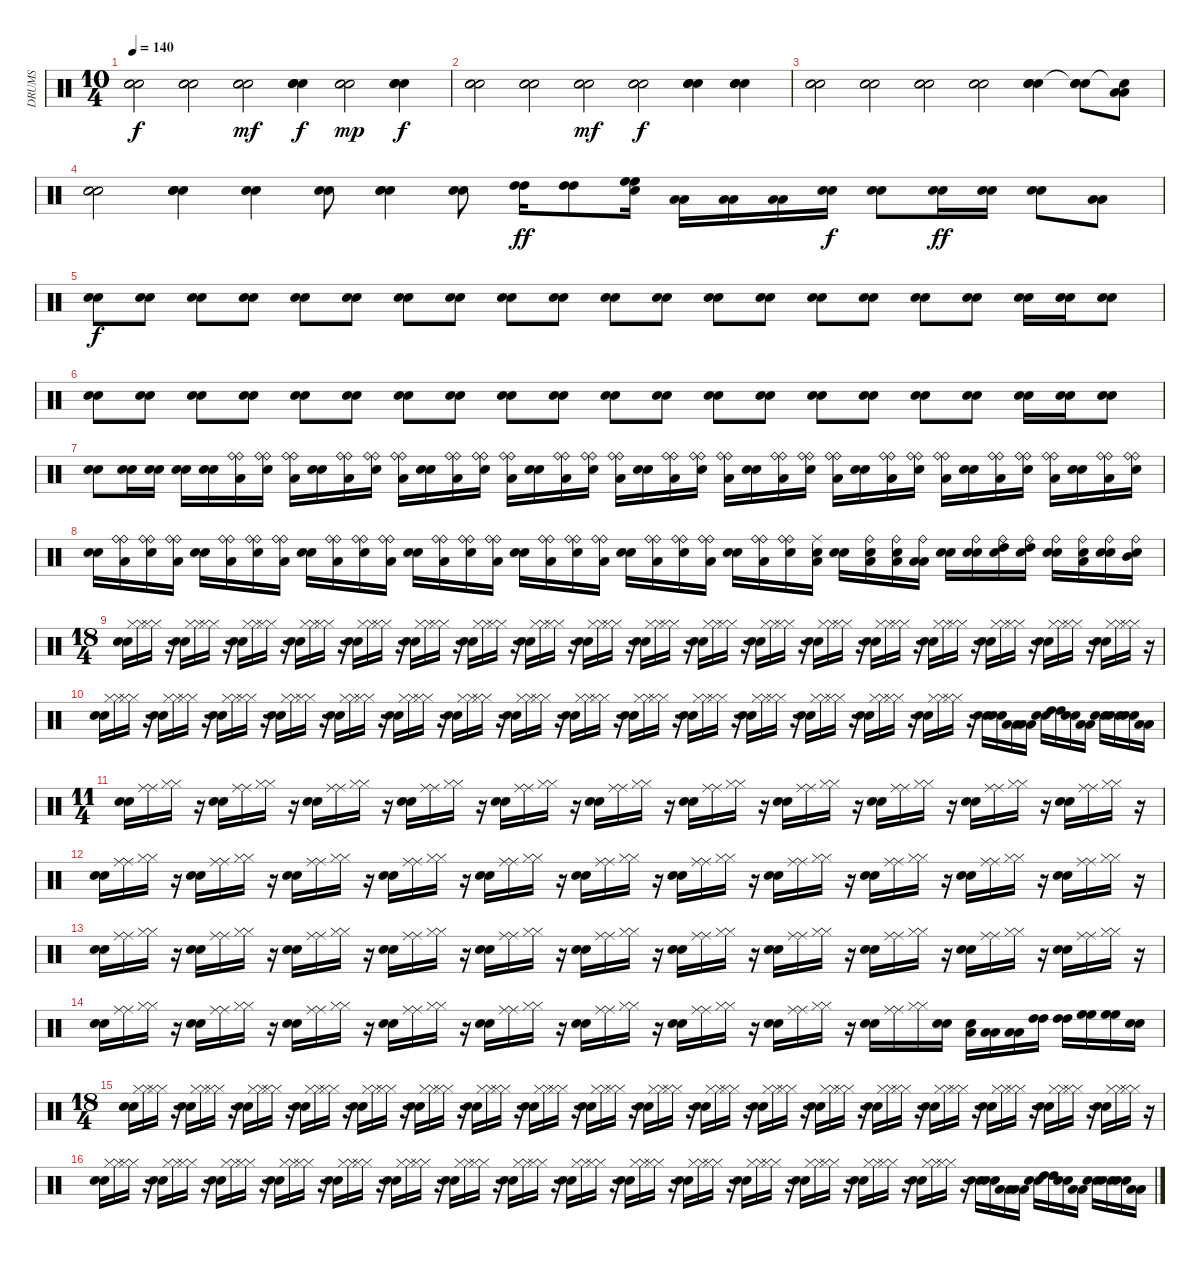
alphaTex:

\track ("DRUMS" "DRUMS") {instrument percussion}
\staff {score}
\articulation defaults
\ts (10 4)
\tempo 140
\clef neutral
\ks c
("Snare (hit) 2" "Snare (hit) 2" "Hand Clap (hit)").2{dy f} ("Snare (hit) 2" "Snare (hit) 2" "Hand Clap (hit)").2 ("Snare (hit) 2" "Snare (hit) 2" "Hand Clap (hit)").2{dy mf} ("Snare (hit) 2" "Snare (hit) 2" "Hand Clap (hit)").4{dy f} ("Electric Snare (hit)" "Electric Snare (hit)" "Hand Clap (hit)").2{dy mp} ("Snare (hit) 2" "Snare (hit) 2" "Hand Clap (hit)").4{dy f} |
("Snare (hit) 2" "Snare (hit) 2" "Hand Clap (hit)").2 ("Snare (hit) 2" "Snare (hit) 2" "Hand Clap (hit)").2 ("Snare (hit) 2" "Snare (hit) 2" "Hand Clap (hit)").2{dy mf} ("Snare (hit) 2" "Snare (hit) 2" "Hand Clap (hit)").2{dy f} ("Snare (hit) 2" "Snare (hit) 2" "Hand Clap (hit)").4 ("Snare (hit) 2" "Snare (hit) 2" "Hand Clap (hit)").4 |
("Snare (hit) 2" "Snare (hit) 2" "Hand Clap (hit)").2 ("Snare (hit) 2" "Snare (hit) 2" "Hand Clap (hit)").2 ("Snare (hit) 2" "Snare (hit) 2" "Hand Clap (hit)").2 ("Snare (hit) 2" "Snare (hit) 2" "Hand Clap (hit)").2 ("Snare (hit) 2" "Snare (hit) 2" "Hand Clap (hit)").4 ("Electric Snare (hit)" "Electric Snare (hit)" "Snare (hit)"{t}).8 ("Low Floor Tom (hit)" "Low Floor Tom (hit)" "Snare (hit)"{t}).8 |
("Snare (hit) 2" "Snare (hit) 2" "Hand Clap (hit)").2 ("Snare (hit) 2" "Snare (hit) 2" "Hand Clap (hit)").4 ("Snare (hit) 2" "Snare (hit) 2").4 ("Electric Snare (hit)" "Electric Snare (hit)").8 ("Snare (hit) 2" "Snare (hit) 2" "Hand Clap (hit)").4 ("Electric Snare (hit)" "Electric Snare (hit)").8 ("High Tom (hit)" "High Tom (hit)").16{dy ff volume 16} ("High Tom (hit)" "High Tom (hit)").8 ("High Floor Tom (hit)" "High Floor Tom (hit)" "Hand Clap (hit)").16 ("Low Tom (hit)" "Low Tom (hit)").16 ("Low Tom (hit)" "Low Tom (hit)").16 ("Low Tom (hit)" "Low Tom (hit)").16{volume 16} ("Electric Snare (hit)" "Electric Snare (hit)").16{dy f} ("Electric Snare (hit)" "Electric Snare (hit)").8 ("Electric Snare (hit)" "Electric Snare (hit)").16{dy ff volume 16} ("Electric Snare (hit)" "Electric Snare (hit)").16 ("Electric Snare (hit)" "Electric Snare (hit)").8 ("Low Tom (hit)" "Low Tom (hit)").8{volume 15} |
("Electric Snare (hit)" "Electric Snare (hit)").8{dy f} ("Snare (hit) 2" "Snare (hit) 2").8 ("Electric Snare (hit)" "Electric Snare (hit)").8 ("Snare (hit) 2" "Snare (hit) 2").8 ("Electric Snare (hit)" "Electric Snare (hit)").8 ("Snare (hit) 2" "Snare (hit) 2").8 ("Electric Snare (hit)" "Electric Snare (hit)").8 ("Snare (hit) 2" "Snare (hit) 2").8 ("Electric Snare (hit)" "Electric Snare (hit)").8 ("Snare (hit) 2" "Snare (hit) 2").8 ("Electric Snare (hit)" "Electric Snare (hit)").8 ("Snare (hit) 2" "Snare (hit) 2").8 ("Electric Snare (hit)" "Electric Snare (hit)").8 ("Snare (hit) 2" "Snare (hit) 2").8 ("Electric Snare (hit)" "Electric Snare (hit)").8 ("Snare (hit) 2" "Snare (hit) 2").8 ("Electric Snare (hit)" "Electric Snare (hit)").8 ("Snare (hit) 2" "Snare (hit) 2").8 ("Electric Snare (hit)" "Electric Snare (hit)").16 ("Electric Snare (hit)" "Electric Snare (hit)").16 ("Snare (hit) 2" "Snare (hit) 2").8 |
("Electric Snare (hit)" "Electric Snare (hit)").8 ("Snare (hit) 2" "Snare (hit) 2").8 ("Electric Snare (hit)" "Electric Snare (hit)").8 ("Snare (hit) 2" "Snare (hit) 2").8 ("Electric Snare (hit)" "Electric Snare (hit)").8 ("Snare (hit) 2" "Snare (hit) 2").8 ("Electric Snare (hit)" "Electric Snare (hit)").8 ("Snare (hit) 2" "Snare (hit) 2").8 ("Electric Snare (hit)" "Electric Snare (hit)").8 ("Snare (hit) 2" "Snare (hit) 2").8 ("Electric Snare (hit)" "Electric Snare (hit)").8 ("Snare (hit) 2" "Snare (hit) 2").8 ("Electric Snare (hit)" "Electric Snare (hit)").8 ("Snare (hit) 2" "Snare (hit) 2").8 ("Electric Snare (hit)" "Electric Snare (hit)").8 ("Snare (hit) 2" "Snare (hit) 2").8 ("Electric Snare (hit)" "Electric Snare (hit)").8 ("Snare (hit) 2" "Snare (hit) 2").8 ("Electric Snare (hit)" "Electric Snare (hit)").16 ("Electric Snare (hit)" "Electric Snare (hit)").16 ("Snare (hit) 2" "Snare (hit) 2").8 |
("Electric Snare (hit)" "Electric Snare (hit)").8 ("Electric Snare (hit)" "Electric Snare (hit)").16 ("Electric Snare (hit)" "Electric Snare (hit)").16 ("Electric Snare (hit)" "Electric Snare (hit)").16 ("Electric Snare (hit)" "Electric Snare (hit)").16{volume 16} ("Low Floor Tom (hit)" "Ride (bell)" "Ride (bell)").16 ("Electric Snare (hit)" "Ride (bell)" "Ride (bell)").16 ("Low Floor Tom (hit)" "Ride (bell)" "Ride (bell)").16 ("Electric Snare (hit)" "Snare (hit) 2").16 ("Low Floor Tom (hit)" "Ride (bell)" "Ride (bell)").16 ("Electric Snare (hit)" "Ride (bell)" "Ride (bell)").16 ("Low Floor Tom (hit)" "Ride (bell)" "Ride (bell)").16 ("Electric Snare (hit)" "Snare (hit) 2").16 ("Low Floor Tom (hit)" "Ride (bell)" "Ride (bell)").16 ("Electric Snare (hit)" "Ride (bell)" "Ride (bell)").16 ("Low Floor Tom (hit)" "Ride (bell)" "Ride (bell)").16 ("Electric Snare (hit)" "Snare (hit) 2").16 ("Low Floor Tom (hit)" "Ride (bell)" "Ride (bell)").16 ("Electric Snare (hit)" "Ride (bell)" "Ride (bell)").16 ("Low Floor Tom (hit)" "Ride (bell)" "Ride (bell)").16 ("Electric Snare (hit)" "Snare (hit) 2").16 ("Low Floor Tom (hit)" "Ride (bell)" "Ride (bell)").16 ("Electric Snare (hit)" "Ride (bell)" "Ride (bell)").16 ("Low Floor Tom (hit)" "Ride (bell)" "Ride (bell)").16 ("Electric Snare (hit)" "Snare (hit) 2").16 ("Low Floor Tom (hit)" "Ride (bell)" "Ride (bell)").16 ("Electric Snare (hit)" "Ride (bell)" "Ride (bell)").16 ("Low Floor Tom (hit)" "Ride (bell)" "Ride (bell)").16 ("Electric Snare (hit)" "Snare (hit) 2").16 ("Low Floor Tom (hit)" "Ride (bell)" "Ride (bell)").16 ("Electric Snare (hit)" "Ride (bell)" "Ride (bell)").16 ("Low Floor Tom (hit)" "Ride (bell)" "Ride (bell)").16 ("Electric Snare (hit)" "Snare (hit) 2").16 ("Low Floor Tom (hit)" "Ride (bell)" "Ride (bell)").16 ("Electric Snare (hit)" "Ride (bell)" "Ride (bell)").16 ("Low Floor Tom (hit)" "Ride (bell)" "Ride (bell)").16 ("Electric Snare (hit)" "Snare (hit) 2").16 ("Low Floor Tom (hit)" "Ride (bell)" "Ride (bell)").16 ("Electric Snare (hit)" "Ride (bell)" "Ride (bell)").16 |
("Electric Snare (hit)" "Snare (hit) 2").16{volume 16} ("Low Floor Tom (hit)" "Ride (bell)" "Ride (bell)").16 ("Electric Snare (hit)" "Ride (bell)" "Ride (bell)").16 ("Low Floor Tom (hit)" "Ride (bell)" "Ride (bell)").16 ("Electric Snare (hit)" "Snare (hit) 2").16 ("Low Floor Tom (hit)" "Ride (bell)" "Ride (bell)").16 ("Electric Snare (hit)" "Ride (bell)" "Ride (bell)").16 ("Low Floor Tom (hit)" "Ride (bell)" "Ride (bell)").16 ("Electric Snare (hit)" "Snare (hit) 2").16 ("Low Floor Tom (hit)" "Ride (bell)" "Ride (bell)").16 ("Electric Snare (hit)" "Ride (bell)" "Ride (bell)").16 ("Low Floor Tom (hit)" "Ride (bell)" "Ride (bell)").16 ("Electric Snare (hit)" "Snare (hit) 2").16 ("Low Floor Tom (hit)" "Ride (bell)" "Ride (bell)").16 ("Electric Snare (hit)" "Ride (bell)" "Ride (bell)").16 ("Low Floor Tom (hit)" "Ride (bell)" "Ride (bell)").16 ("Electric Snare (hit)" "Snare (hit) 2").16 ("Low Floor Tom (hit)" "Ride (bell)" "Ride (bell)").16 ("Electric Snare (hit)" "Ride (bell)" "Ride (bell)").16 ("Low Floor Tom (hit)" "Ride (bell)" "Ride (bell)").16 ("Electric Snare (hit)" "Snare (hit) 2").16 ("Low Floor Tom (hit)" "Ride (bell)" "Ride (bell)").16 ("Electric Snare (hit)" "Ride (bell)" "Ride (bell)").16 ("Low Floor Tom (hit)" "Ride (bell)" "Ride (bell)").16 ("Electric Snare (hit)" "Snare (hit) 2").16 ("Low Floor Tom (hit)" "Ride (bell)" "Ride (bell)").16 ("Electric Snare (hit)" "Ride (bell)" "Ride (bell)").16 ("Low Floor Tom (hit)" "Electric Snare (hit)" "Ride (middle)").16 ("Electric Snare (hit)" "Electric Snare (hit)").16 ("Low Tom (hit)" "Electric Snare (hit)" "Ride (bell)").16 ("Electric Snare (hit)" "Low Tom (hit)" "Ride (bell)").16 ("Low Tom (hit)" "Low Tom (hit)" "Ride (bell)").16 ("Electric Snare (hit)" "Snare (hit) 2").16 ("Electric Snare (hit)" "Electric Snare (hit)" "Ride (bell)").16 ("Electric Snare (hit)" "High Tom (hit)" "Ride (bell)").16 ("Electric Snare (hit)" "High Tom (hit)" "Ride (bell)").16 ("Electric Snare (hit)" "Electric Snare (hit)" "Ride (bell)").16 ("Electric Snare (hit)" "Low Tom (hit)" "Ride (bell)").16 ("Electric Snare (hit)" "Electric Snare (hit)" "Ride (bell)").16 ("Electric Snare (hit)" "Mid Tom (hit)" "Ride (bell)").16 |
\ts (18 4)
("Electric Snare (hit)" "Electric Snare (hit)").16 ("Hi-Hat (closed)" "Hi-Hat (closed)").16 ("Hi-Hat (closed)" "Hi-Hat (closed)").16 r.16 ("Electric Snare (hit)" "Electric Snare (hit)").16 ("Hi-Hat (closed)" "Hi-Hat (closed)").16 ("Hi-Hat (closed)" "Hi-Hat (closed)").16 r.16 ("Electric Snare (hit)" "Electric Snare (hit)").16 ("Hi-Hat (closed)" "Hi-Hat (closed)").16 ("Hi-Hat (closed)" "Hi-Hat (closed)").16 r.16 ("Electric Snare (hit)" "Electric Snare (hit)").16 ("Hi-Hat (closed)" "Hi-Hat (closed)").16 ("Hi-Hat (closed)" "Hi-Hat (closed)").16 r.16 ("Electric Snare (hit)" "Electric Snare (hit)").16 ("Hi-Hat (closed)" "Hi-Hat (closed)").16 ("Hi-Hat (closed)" "Hi-Hat (closed)").16 r.16 ("Electric Snare (hit)" "Electric Snare (hit)").16 ("Hi-Hat (closed)" "Hi-Hat (closed)").16 ("Hi-Hat (closed)" "Hi-Hat (closed)").16 r.16 ("Electric Snare (hit)" "Electric Snare (hit)").16 ("Hi-Hat (closed)" "Hi-Hat (closed)").16 ("Hi-Hat (closed)" "Hi-Hat (closed)").16 r.16 ("Electric Snare (hit)" "Electric Snare (hit)").16 ("Hi-Hat (closed)" "Hi-Hat (closed)").16 ("Hi-Hat (closed)" "Hi-Hat (closed)").16 r.16 ("Electric Snare (hit)" "Electric Snare (hit)").16 ("Hi-Hat (closed)" "Hi-Hat (closed)").16 ("Hi-Hat (closed)" "Hi-Hat (closed)").16 r.16 ("Electric Snare (hit)" "Electric Snare (hit)").16 ("Hi-Hat (closed)" "Hi-Hat (closed)").16 ("Hi-Hat (closed)" "Hi-Hat (closed)").16 r.16 ("Electric Snare (hit)" "Electric Snare (hit)").16 ("Hi-Hat (closed)" "Hi-Hat (closed)").16 ("Hi-Hat (closed)" "Hi-Hat (closed)").16 r.16 ("Electric Snare (hit)" "Electric Snare (hit)").16 ("Hi-Hat (closed)" "Hi-Hat (closed)").16 ("Hi-Hat (closed)" "Hi-Hat (closed)").16 r.16 ("Electric Snare (hit)" "Electric Snare (hit)").16 ("Hi-Hat (closed)" "Hi-Hat (closed)").16 ("Hi-Hat (closed)" "Hi-Hat (closed)").16 r.16 ("Electric Snare (hit)" "Electric Snare (hit)").16 ("Hi-Hat (closed)" "Hi-Hat (closed)").16 ("Hi-Hat (closed)" "Hi-Hat (closed)").16 r.16 ("Electric Snare (hit)" "Electric Snare (hit)").16 ("Hi-Hat (closed)" "Hi-Hat (closed)").16 ("Hi-Hat (closed)" "Hi-Hat (closed)").16 r.16 ("Electric Snare (hit)" "Electric Snare (hit)").16 ("Hi-Hat (closed)" "Hi-Hat (closed)").16 ("Hi-Hat (closed)" "Hi-Hat (closed)").16 r.16 ("Electric Snare (hit)" "Electric Snare (hit)").16 ("Hi-Hat (closed)" "Hi-Hat (closed)").16 ("Hi-Hat (closed)" "Hi-Hat (closed)").16 r.16 ("Electric Snare (hit)" "Electric Snare (hit)").16 ("Hi-Hat (closed)" "Hi-Hat (closed)").16 ("Hi-Hat (closed)" "Hi-Hat (closed)").16 r.16 |
("Electric Snare (hit)" "Electric Snare (hit)").16 ("Hi-Hat (closed)" "Hi-Hat (closed)").16 ("Hi-Hat (closed)" "Hi-Hat (closed)").16 r.16 ("Electric Snare (hit)" "Electric Snare (hit)").16 ("Hi-Hat (closed)" "Hi-Hat (closed)").16 ("Hi-Hat (closed)" "Hi-Hat (closed)").16 r.16 ("Electric Snare (hit)" "Electric Snare (hit)").16 ("Hi-Hat (closed)" "Hi-Hat (closed)").16 ("Hi-Hat (closed)" "Hi-Hat (closed)").16 r.16 ("Electric Snare (hit)" "Electric Snare (hit)").16 ("Hi-Hat (closed)" "Hi-Hat (closed)").16 ("Hi-Hat (closed)" "Hi-Hat (closed)").16 r.16 ("Electric Snare (hit)" "Electric Snare (hit)").16 ("Hi-Hat (closed)" "Hi-Hat (closed)").16 ("Hi-Hat (closed)" "Hi-Hat (closed)").16 r.16 ("Electric Snare (hit)" "Electric Snare (hit)").16 ("Hi-Hat (closed)" "Hi-Hat (closed)").16 ("Hi-Hat (closed)" "Hi-Hat (closed)").16 r.16 ("Electric Snare (hit)" "Electric Snare (hit)").16 ("Hi-Hat (closed)" "Hi-Hat (closed)").16 ("Hi-Hat (closed)" "Hi-Hat (closed)").16 r.16 ("Electric Snare (hit)" "Electric Snare (hit)").16 ("Hi-Hat (closed)" "Hi-Hat (closed)").16 ("Hi-Hat (closed)" "Hi-Hat (closed)").16 r.16 ("Electric Snare (hit)" "Electric Snare (hit)").16 ("Hi-Hat (closed)" "Hi-Hat (closed)").16 ("Hi-Hat (closed)" "Hi-Hat (closed)").16 r.16 ("Electric Snare (hit)" "Electric Snare (hit)").16 ("Hi-Hat (closed)" "Hi-Hat (closed)").16 ("Hi-Hat (closed)" "Hi-Hat (closed)").16 r.16 ("Electric Snare (hit)" "Electric Snare (hit)").16 ("Hi-Hat (closed)" "Hi-Hat (closed)").16 ("Hi-Hat (closed)" "Hi-Hat (closed)").16 r.16 ("Electric Snare (hit)" "Electric Snare (hit)").16 ("Hi-Hat (closed)" "Hi-Hat (closed)").16 ("Hi-Hat (closed)" "Hi-Hat (closed)").16 r.16 ("Electric Snare (hit)" "Electric Snare (hit)").16 ("Hi-Hat (closed)" "Hi-Hat (closed)").16 ("Hi-Hat (closed)" "Hi-Hat (closed)").16 r.16 ("Electric Snare (hit)" "Electric Snare (hit)").16 ("Hi-Hat (closed)" "Hi-Hat (closed)").16 ("Hi-Hat (closed)" "Hi-Hat (closed)").16 r.16 ("Electric Snare (hit)" "Electric Snare (hit)").16 ("Hi-Hat (closed)" "Hi-Hat (closed)").16 ("Hi-Hat (closed)" "Hi-Hat (closed)").16 r.16 ("Electric Snare (hit)" "Electric Snare (hit)").16 ("Electric Snare (hit)" "Electric Snare (hit)").16 ("Low Tom (hit)" "Low Tom (hit)").16 ("Low Tom (hit)" "Low Tom (hit)").16 ("Electric Snare (hit)" "Electric Snare (hit)").16 ("High Tom (hit)" "High Tom (hit)").16 ("Electric Snare (hit)" "Electric Snare (hit)").16 ("Low Tom (hit)" "Low Tom (hit)").16 ("Electric Snare (hit)" "Electric Snare (hit)").16 ("Electric Snare (hit)" "Electric Snare (hit)").16 ("Electric Snare (hit)" "Electric Snare (hit)").16 ("Low Tom (hit)" "Low Tom (hit)").16 |
\ts (11 4)
("Electric Snare (hit)" "Electric Snare (hit)").16 ("Ride (middle)" "Ride (middle)").16 ("Hi-Hat (closed)" "Hi-Hat (closed)").16 r.16 ("Electric Snare (hit)" "Electric Snare (hit)").16 ("Ride (middle)" "Ride (middle)").16 ("Hi-Hat (closed)" "Hi-Hat (closed)").16 r.16 ("Electric Snare (hit)" "Electric Snare (hit)").16 ("Ride (middle)" "Ride (middle)").16 ("Hi-Hat (closed)" "Hi-Hat (closed)").16 r.16 ("Electric Snare (hit)" "Electric Snare (hit)").16 ("Ride (middle)" "Ride (middle)").16 ("Hi-Hat (closed)" "Hi-Hat (closed)").16 r.16 ("Electric Snare (hit)" "Electric Snare (hit)").16 ("Ride (middle)" "Ride (middle)").16 ("Hi-Hat (closed)" "Hi-Hat (closed)").16 r.16 ("Electric Snare (hit)" "Electric Snare (hit)").16 ("Ride (middle)" "Ride (middle)").16 ("Hi-Hat (closed)" "Hi-Hat (closed)").16 r.16 ("Electric Snare (hit)" "Electric Snare (hit)").16 ("Ride (middle)" "Ride (middle)").16 ("Hi-Hat (closed)" "Hi-Hat (closed)").16 r.16 ("Electric Snare (hit)" "Electric Snare (hit)").16 ("Ride (middle)" "Ride (middle)").16 ("Hi-Hat (closed)" "Hi-Hat (closed)").16 r.16 ("Electric Snare (hit)" "Electric Snare (hit)").16 ("Ride (middle)" "Ride (middle)").16 ("Hi-Hat (closed)" "Hi-Hat (closed)").16 r.16 ("Electric Snare (hit)" "Electric Snare (hit)").16 ("Ride (middle)" "Ride (middle)").16 ("Hi-Hat (closed)" "Hi-Hat (closed)").16 r.16 ("Electric Snare (hit)" "Electric Snare (hit)").16 ("Ride (middle)" "Ride (middle)").16 ("Hi-Hat (closed)" "Hi-Hat (closed)").16 r.16 |
("Electric Snare (hit)" "Electric Snare (hit)").16 ("Ride (middle)" "Ride (middle)").16 ("Hi-Hat (closed)" "Hi-Hat (closed)").16 r.16 ("Electric Snare (hit)" "Electric Snare (hit)").16 ("Ride (middle)" "Ride (middle)").16 ("Hi-Hat (closed)" "Hi-Hat (closed)").16 r.16 ("Electric Snare (hit)" "Electric Snare (hit)").16 ("Ride (middle)" "Ride (middle)").16 ("Hi-Hat (closed)" "Hi-Hat (closed)").16 r.16 ("Electric Snare (hit)" "Electric Snare (hit)").16 ("Ride (middle)" "Ride (middle)").16 ("Hi-Hat (closed)" "Hi-Hat (closed)").16 r.16 ("Electric Snare (hit)" "Electric Snare (hit)").16 ("Ride (middle)" "Ride (middle)").16 ("Hi-Hat (closed)" "Hi-Hat (closed)").16 r.16 ("Electric Snare (hit)" "Electric Snare (hit)").16 ("Ride (middle)" "Ride (middle)").16 ("Hi-Hat (closed)" "Hi-Hat (closed)").16 r.16 ("Electric Snare (hit)" "Electric Snare (hit)").16 ("Ride (middle)" "Ride (middle)").16 ("Hi-Hat (closed)" "Hi-Hat (closed)").16 r.16 ("Electric Snare (hit)" "Electric Snare (hit)").16 ("Ride (middle)" "Ride (middle)").16 ("Hi-Hat (closed)" "Hi-Hat (closed)").16 r.16 ("Electric Snare (hit)" "Electric Snare (hit)").16 ("Ride (middle)" "Ride (middle)").16 ("Hi-Hat (closed)" "Hi-Hat (closed)").16 r.16 ("Electric Snare (hit)" "Electric Snare (hit)").16 ("Ride (middle)" "Ride (middle)").16 ("Hi-Hat (closed)" "Hi-Hat (closed)").16 r.16 ("Electric Snare (hit)" "Electric Snare (hit)").16 ("Ride (middle)" "Ride (middle)").16 ("Hi-Hat (closed)" "Hi-Hat (closed)").16 r.16 |
("Electric Snare (hit)" "Electric Snare (hit)").16 ("Ride (middle)" "Ride (middle)").16 ("Hi-Hat (closed)" "Hi-Hat (closed)").16 r.16 ("Electric Snare (hit)" "Electric Snare (hit)").16 ("Ride (middle)" "Ride (middle)").16 ("Hi-Hat (closed)" "Hi-Hat (closed)").16 r.16 ("Electric Snare (hit)" "Electric Snare (hit)").16 ("Ride (middle)" "Ride (middle)").16 ("Hi-Hat (closed)" "Hi-Hat (closed)").16 r.16 ("Electric Snare (hit)" "Electric Snare (hit)").16 ("Ride (middle)" "Ride (middle)").16 ("Hi-Hat (closed)" "Hi-Hat (closed)").16 r.16 ("Electric Snare (hit)" "Electric Snare (hit)").16 ("Ride (middle)" "Ride (middle)").16 ("Hi-Hat (closed)" "Hi-Hat (closed)").16 r.16 ("Electric Snare (hit)" "Electric Snare (hit)").16 ("Ride (middle)" "Ride (middle)").16 ("Hi-Hat (closed)" "Hi-Hat (closed)").16 r.16 ("Electric Snare (hit)" "Electric Snare (hit)").16 ("Ride (middle)" "Ride (middle)").16 ("Hi-Hat (closed)" "Hi-Hat (closed)").16 r.16 ("Electric Snare (hit)" "Electric Snare (hit)").16 ("Ride (middle)" "Ride (middle)").16 ("Hi-Hat (closed)" "Hi-Hat (closed)").16 r.16 ("Electric Snare (hit)" "Electric Snare (hit)").16 ("Ride (middle)" "Ride (middle)").16 ("Hi-Hat (closed)" "Hi-Hat (closed)").16 r.16 ("Electric Snare (hit)" "Electric Snare (hit)").16 ("Ride (middle)" "Ride (middle)").16 ("Hi-Hat (closed)" "Hi-Hat (closed)").16 r.16 ("Electric Snare (hit)" "Electric Snare (hit)").16 ("Ride (middle)" "Ride (middle)").16 ("Hi-Hat (closed)" "Hi-Hat (closed)").16 r.16 |
("Electric Snare (hit)" "Electric Snare (hit)").16 ("Ride (middle)" "Ride (middle)").16 ("Hi-Hat (closed)" "Hi-Hat (closed)").16 r.16 ("Electric Snare (hit)" "Electric Snare (hit)").16 ("Ride (middle)" "Ride (middle)").16 ("Hi-Hat (closed)" "Hi-Hat (closed)").16 r.16 ("Electric Snare (hit)" "Electric Snare (hit)").16 ("Ride (middle)" "Ride (middle)").16 ("Hi-Hat (closed)" "Hi-Hat (closed)").16 r.16 ("Electric Snare (hit)" "Electric Snare (hit)").16 ("Ride (middle)" "Ride (middle)").16 ("Hi-Hat (closed)" "Hi-Hat (closed)").16 r.16 ("Electric Snare (hit)" "Electric Snare (hit)").16 ("Ride (middle)" "Ride (middle)").16 ("Hi-Hat (closed)" "Hi-Hat (closed)").16 r.16 ("Electric Snare (hit)" "Electric Snare (hit)").16 ("Ride (middle)" "Ride (middle)").16 ("Hi-Hat (closed)" "Hi-Hat (closed)").16 r.16 ("Electric Snare (hit)" "Electric Snare (hit)").16 ("Ride (middle)" "Ride (middle)").16 ("Hi-Hat (closed)" "Hi-Hat (closed)").16 r.16 ("Electric Snare (hit)" "Electric Snare (hit)").16 ("Ride (middle)" "Ride (middle)").16 ("Hi-Hat (closed)" "Hi-Hat (closed)").16 r.16 ("Electric Snare (hit)" "Electric Snare (hit)").16 ("Ride (middle)" "Ride (middle)").16 ("Hi-Hat (closed)" "Hi-Hat (closed)").16 ("Electric Snare (hit)" "Electric Snare (hit)").16 ("Electric Snare (hit)" "Low Floor Tom (hit)").16 ("Low Tom (hit)" "Low Tom (hit)").16 ("Low Tom (hit)" "Low Tom (hit)").16 ("High Tom (hit)" "High Tom (hit)").16 ("High Tom (hit)" "High Tom (hit)").16 ("High Floor Tom (hit)" "High Floor Tom (hit)").16 ("High Floor Tom (hit)" "High Floor Tom (hit)").16 ("Electric Snare (hit)" "Electric Snare (hit)").16 |
\ts (18 4)
("Electric Snare (hit)" "Electric Snare (hit)").16 ("Hi-Hat (closed)" "Hi-Hat (closed)").16 ("Hi-Hat (closed)" "Hi-Hat (closed)").16 r.16 ("Electric Snare (hit)" "Electric Snare (hit)").16 ("Hi-Hat (closed)" "Hi-Hat (closed)").16 ("Hi-Hat (closed)" "Hi-Hat (closed)").16 r.16 ("Electric Snare (hit)" "Electric Snare (hit)").16 ("Hi-Hat (closed)" "Hi-Hat (closed)").16 ("Hi-Hat (closed)" "Hi-Hat (closed)").16 r.16 ("Electric Snare (hit)" "Electric Snare (hit)").16 ("Hi-Hat (closed)" "Hi-Hat (closed)").16 ("Hi-Hat (closed)" "Hi-Hat (closed)").16 r.16 ("Electric Snare (hit)" "Electric Snare (hit)").16 ("Hi-Hat (closed)" "Hi-Hat (closed)").16 ("Hi-Hat (closed)" "Hi-Hat (closed)").16 r.16 ("Electric Snare (hit)" "Electric Snare (hit)").16 ("Hi-Hat (closed)" "Hi-Hat (closed)").16 ("Hi-Hat (closed)" "Hi-Hat (closed)").16 r.16 ("Electric Snare (hit)" "Electric Snare (hit)").16 ("Hi-Hat (closed)" "Hi-Hat (closed)").16 ("Hi-Hat (closed)" "Hi-Hat (closed)").16 r.16 ("Electric Snare (hit)" "Electric Snare (hit)").16 ("Hi-Hat (closed)" "Hi-Hat (closed)").16 ("Hi-Hat (closed)" "Hi-Hat (closed)").16 r.16 ("Electric Snare (hit)" "Electric Snare (hit)").16 ("Hi-Hat (closed)" "Hi-Hat (closed)").16 ("Hi-Hat (closed)" "Hi-Hat (closed)").16 r.16 ("Electric Snare (hit)" "Electric Snare (hit)").16 ("Hi-Hat (closed)" "Hi-Hat (closed)").16 ("Hi-Hat (closed)" "Hi-Hat (closed)").16 r.16 ("Electric Snare (hit)" "Electric Snare (hit)").16 ("Hi-Hat (closed)" "Hi-Hat (closed)").16 ("Hi-Hat (closed)" "Hi-Hat (closed)").16 r.16 ("Electric Snare (hit)" "Electric Snare (hit)").16 ("Hi-Hat (closed)" "Hi-Hat (closed)").16 ("Hi-Hat (closed)" "Hi-Hat (closed)").16 r.16 ("Electric Snare (hit)" "Electric Snare (hit)").16 ("Hi-Hat (closed)" "Hi-Hat (closed)").16 ("Hi-Hat (closed)" "Hi-Hat (closed)").16 r.16 ("Electric Snare (hit)" "Electric Snare (hit)").16 ("Hi-Hat (closed)" "Hi-Hat (closed)").16 ("Hi-Hat (closed)" "Hi-Hat (closed)").16 r.16 ("Electric Snare (hit)" "Electric Snare (hit)").16 ("Hi-Hat (closed)" "Hi-Hat (closed)").16 ("Hi-Hat (closed)" "Hi-Hat (closed)").16 r.16 ("Electric Snare (hit)" "Electric Snare (hit)").16 ("Hi-Hat (closed)" "Hi-Hat (closed)").16 ("Hi-Hat (closed)" "Hi-Hat (closed)").16 r.16 ("Electric Snare (hit)" "Electric Snare (hit)").16 ("Hi-Hat (closed)" "Hi-Hat (closed)").16 ("Hi-Hat (closed)" "Hi-Hat (closed)").16 r.16 ("Electric Snare (hit)" "Electric Snare (hit)").16 ("Hi-Hat (closed)" "Hi-Hat (closed)").16 ("Hi-Hat (closed)" "Hi-Hat (closed)").16 r.16 |
("Electric Snare (hit)" "Electric Snare (hit)").16 ("Hi-Hat (closed)" "Hi-Hat (closed)").16 ("Hi-Hat (closed)" "Hi-Hat (closed)").16 r.16 ("Electric Snare (hit)" "Electric Snare (hit)").16 ("Hi-Hat (closed)" "Hi-Hat (closed)").16 ("Hi-Hat (closed)" "Hi-Hat (closed)").16 r.16 ("Electric Snare (hit)" "Electric Snare (hit)").16 ("Hi-Hat (closed)" "Hi-Hat (closed)").16 ("Hi-Hat (closed)" "Hi-Hat (closed)").16 r.16 ("Electric Snare (hit)" "Electric Snare (hit)").16 ("Hi-Hat (closed)" "Hi-Hat (closed)").16 ("Hi-Hat (closed)" "Hi-Hat (closed)").16 r.16 ("Electric Snare (hit)" "Electric Snare (hit)").16 ("Hi-Hat (closed)" "Hi-Hat (closed)").16 ("Hi-Hat (closed)" "Hi-Hat (closed)").16 r.16 ("Electric Snare (hit)" "Electric Snare (hit)").16 ("Hi-Hat (closed)" "Hi-Hat (closed)").16 ("Hi-Hat (closed)" "Hi-Hat (closed)").16 r.16 ("Electric Snare (hit)" "Electric Snare (hit)").16 ("Hi-Hat (closed)" "Hi-Hat (closed)").16 ("Hi-Hat (closed)" "Hi-Hat (closed)").16 r.16 ("Electric Snare (hit)" "Electric Snare (hit)").16 ("Hi-Hat (closed)" "Hi-Hat (closed)").16 ("Hi-Hat (closed)" "Hi-Hat (closed)").16 r.16 ("Electric Snare (hit)" "Electric Snare (hit)").16 ("Hi-Hat (closed)" "Hi-Hat (closed)").16 ("Hi-Hat (closed)" "Hi-Hat (closed)").16 r.16 ("Electric Snare (hit)" "Electric Snare (hit)").16 ("Hi-Hat (closed)" "Hi-Hat (closed)").16 ("Hi-Hat (closed)" "Hi-Hat (closed)").16 r.16 ("Electric Snare (hit)" "Electric Snare (hit)").16 ("Hi-Hat (closed)" "Hi-Hat (closed)").16 ("Hi-Hat (closed)" "Hi-Hat (closed)").16 r.16 ("Electric Snare (hit)" "Electric Snare (hit)").16 ("Hi-Hat (closed)" "Hi-Hat (closed)").16 ("Hi-Hat (closed)" "Hi-Hat (closed)").16 r.16 ("Electric Snare (hit)" "Electric Snare (hit)").16 ("Hi-Hat (closed)" "Hi-Hat (closed)").16 ("Hi-Hat (closed)" "Hi-Hat (closed)").16 r.16 ("Electric Snare (hit)" "Electric Snare (hit)").16 ("Hi-Hat (closed)" "Hi-Hat (closed)").16 ("Hi-Hat (closed)" "Hi-Hat (closed)").16 r.16 ("Electric Snare (hit)" "Electric Snare (hit)").16 ("Hi-Hat (closed)" "Hi-Hat (closed)").16 ("Hi-Hat (closed)" "Hi-Hat (closed)").16 r.16 ("Electric Snare (hit)" "Electric Snare (hit)").16 ("Electric Snare (hit)" "Electric Snare (hit)").16 ("Low Tom (hit)" "Low Tom (hit)").16 ("Low Tom (hit)" "Low Tom (hit)").16 ("Electric Snare (hit)" "Electric Snare (hit)").16 ("High Tom (hit)" "High Tom (hit)").16 ("Electric Snare (hit)" "Electric Snare (hit)").16 ("Low Tom (hit)" "Low Tom (hit)").16 ("Electric Snare (hit)" "Electric Snare (hit)").16 ("Electric Snare (hit)" "Electric Snare (hit)").16 ("Electric Snare (hit)" "Electric Snare (hit)").16 ("Low Tom (hit)" "Low Tom (hit)").16
